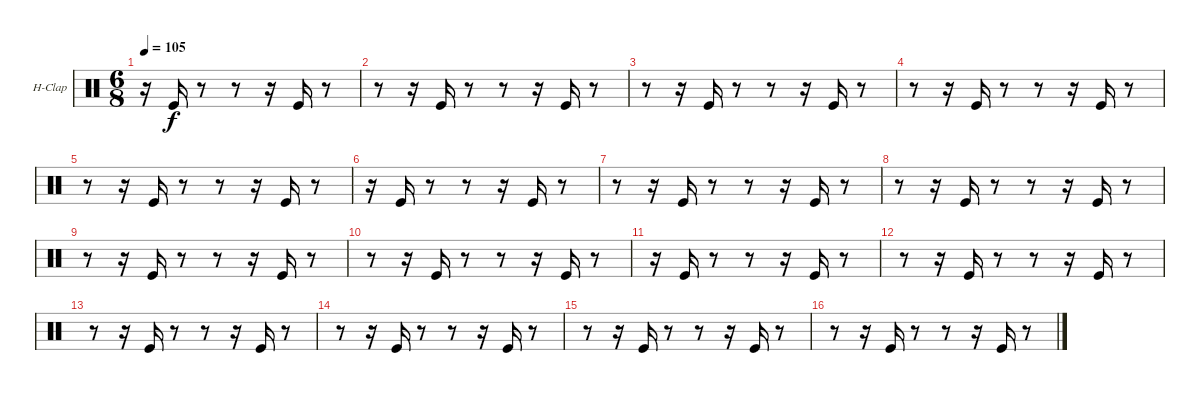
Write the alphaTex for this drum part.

\defaultSystemsLayout 4
\bracketExtendMode nobrackets
\firstSystemTrackNameOrientation horizontal
\otherSystemsTrackNameOrientation horizontal
\track ("Hand Clap" "H-Clap") {instrument percussion}
\staff {score}
\articulation defaults
\ts (6 8)
\tempo 105
\clef neutral
\ks c
r.16{dy f} "Kick (hit)".16 r.8 r.8 r.16 "Kick (hit)".16 r.8 |
r.8 r.16 "Kick (hit)".16 r.8 r.8 r.16 "Kick (hit)".16 r.8 |
r.8 r.16 "Kick (hit)".16 r.8 r.8 r.16 "Kick (hit)".16 r.8 |
r.8 r.16 "Kick (hit)".16 r.8 r.8 r.16 "Kick (hit)".16 r.8 |
r.8 r.16 "Kick (hit)".16 r.8 r.8 r.16 "Kick (hit)".16 r.8 |
r.16 "Kick (hit)".16 r.8 r.8 r.16 "Kick (hit)".16 r.8 |
r.8 r.16 "Kick (hit)".16 r.8 r.8 r.16 "Kick (hit)".16 r.8 |
r.8 r.16 "Kick (hit)".16 r.8 r.8 r.16 "Kick (hit)".16 r.8 |
r.8 r.16 "Kick (hit)".16 r.8 r.8 r.16 "Kick (hit)".16 r.8 |
r.8 r.16 "Kick (hit)".16 r.8 r.8 r.16 "Kick (hit)".16 r.8 |
r.16 "Kick (hit)".16 r.8 r.8 r.16 "Kick (hit)".16 r.8 |
r.8 r.16 "Kick (hit)".16 r.8 r.8 r.16 "Kick (hit)".16 r.8 |
r.8 r.16 "Kick (hit)".16 r.8 r.8 r.16 "Kick (hit)".16 r.8 |
r.8 r.16 "Kick (hit)".16 r.8 r.8 r.16 "Kick (hit)".16 r.8 |
r.8 r.16 "Kick (hit)".16 r.8 r.8 r.16 "Kick (hit)".16 r.8 |
r.8 r.16 "Kick (hit)".16 r.8 r.8 r.16 "Kick (hit)".16 r.8
